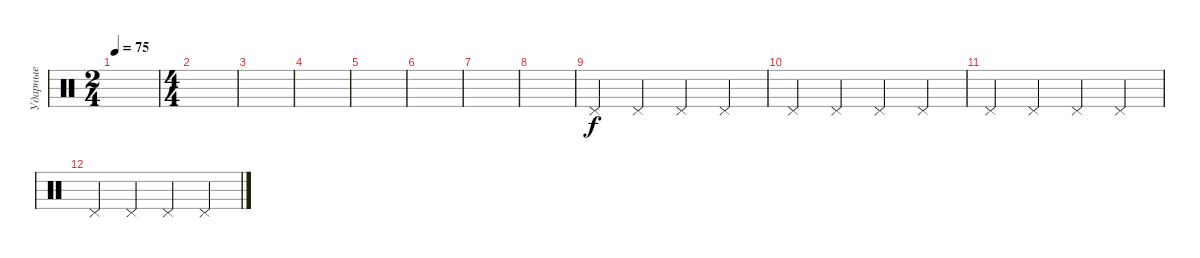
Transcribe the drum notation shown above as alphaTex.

\track ("Ударные" "Ударные") {instrument percussion}
\staff {score}
\articulation defaults
\ts (2 4)
\tempo 75
\clef neutral
\ks c
|
\ts (4 4)
|
|
|
|
|
|
|
"Pedal Hi-Hat (hit)".4 "Pedal Hi-Hat (hit)".4 "Pedal Hi-Hat (hit)".4 "Pedal Hi-Hat (hit)".4 |
"Pedal Hi-Hat (hit)".4 "Pedal Hi-Hat (hit)".4 "Pedal Hi-Hat (hit)".4 "Pedal Hi-Hat (hit)".4 |
"Pedal Hi-Hat (hit)".4 "Pedal Hi-Hat (hit)".4 "Pedal Hi-Hat (hit)".4 "Pedal Hi-Hat (hit)".4 |
"Pedal Hi-Hat (hit)".4 "Pedal Hi-Hat (hit)".4 "Pedal Hi-Hat (hit)".4 "Pedal Hi-Hat (hit)".4
